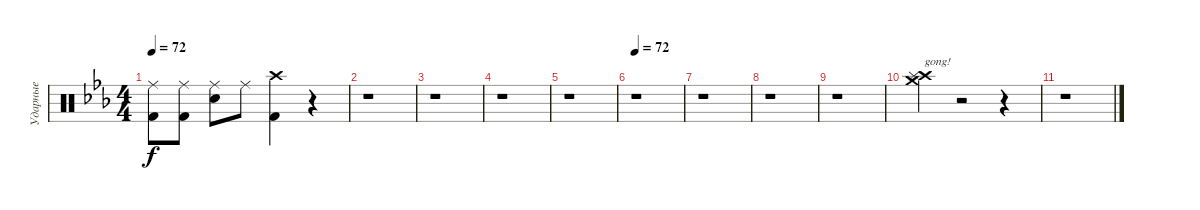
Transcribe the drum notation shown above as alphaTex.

\track ("Ударные" "Ударные") {instrument percussion}
\staff {score}
\articulation defaults
\ts (4 4)
\tempo 72
\clef neutral
\ks eb
("Ride (middle)" "Kick (hit) 2").8{dy f} ("Ride (middle)" "Kick (hit) 2").8 ("Ride (middle)" "Snare (hit) 2").8 "Ride (middle)".8 ("Crash high (hit)" "Kick (hit) 2").4 r.4 |
r.1 |
r.1 |
r.1 |
r.1 |
\tempo 72
r.1 |
r.1 |
r.1 |
r.1 |
("Crash medium (hit)" "Crash high (hit)" "Splash (hit)").4{txt "gong!"} r.2 r.4 |
r.1
